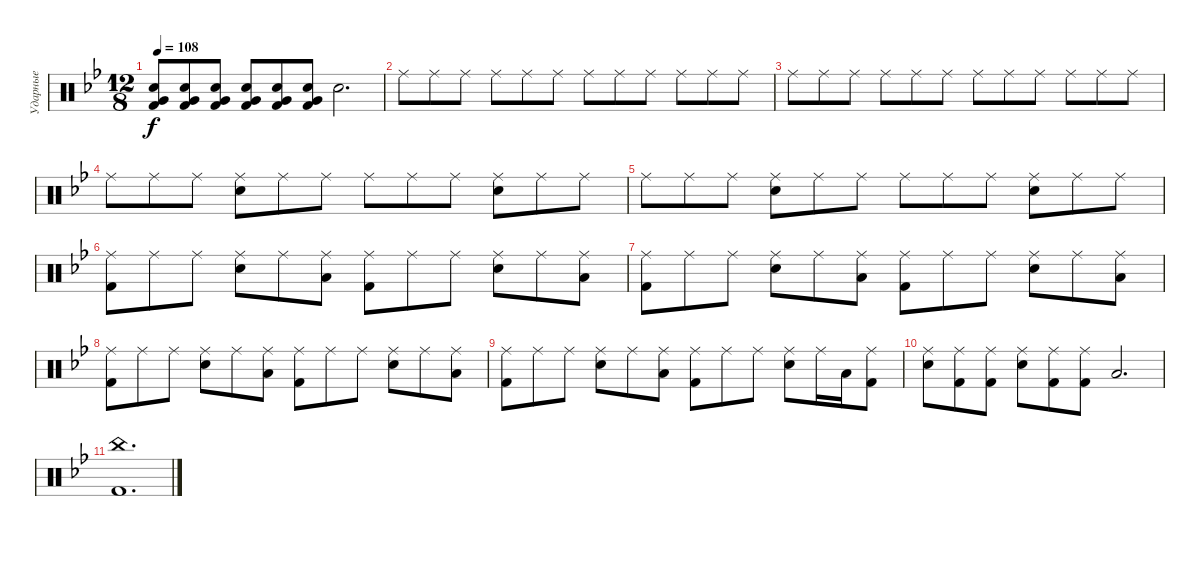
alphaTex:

\track ("Ударные" "Ударные") {instrument percussion}
\staff {score}
\articulation defaults
\ts (12 8)
\tempo 108
\clef neutral
\ks gminor
("Electric Snare (hit)" "Very Low Tom (hit)" "Kick (hit) 2").8{dy f} ("Electric Snare (hit)" "Very Low Tom (hit)" "Kick (hit) 2").8 ("Electric Snare (hit)" "Very Low Tom (hit)" "Kick (hit) 2").8 ("Electric Snare (hit)" "Very Low Tom (hit)" "Kick (hit) 2").8 ("Electric Snare (hit)" "Very Low Tom (hit)" "Kick (hit) 2").8 ("Electric Snare (hit)" "Very Low Tom (hit)" "Kick (hit) 2").8 "Electric Snare (hit)".2{d} |
"Ride (middle)".8 "Ride (middle)".8 "Ride (middle)".8 "Ride (middle)".8 "Ride (middle)".8 "Ride (middle)".8 "Ride (middle)".8 "Ride (middle)".8 "Ride (middle)".8 "Ride (middle)".8 "Ride (middle)".8 "Ride (middle)".8 |
"Ride (middle)".8 "Ride (middle)".8 "Ride (middle)".8 "Ride (middle)".8 "Ride (middle)".8 "Ride (middle)".8 "Ride (middle)".8 "Ride (middle)".8 "Ride (middle)".8 "Ride (middle)".8 "Ride (middle)".8 "Ride (middle)".8 |
"Ride (middle)".8 "Ride (middle)".8 "Ride (middle)".8 ("Ride (middle)" "Electric Snare (hit)").8 "Ride (middle)".8 "Ride (middle)".8 "Ride (middle)".8 "Ride (middle)".8 "Ride (middle)".8 ("Ride (middle)" "Electric Snare (hit)").8 "Ride (middle)".8 "Ride (middle)".8 |
"Ride (middle)".8 "Ride (middle)".8 "Ride (middle)".8 ("Ride (middle)" "Electric Snare (hit)").8 "Ride (middle)".8 "Ride (middle)".8 "Ride (middle)".8 "Ride (middle)".8 "Ride (middle)".8 ("Ride (middle)" "Electric Snare (hit)").8 "Ride (middle)".8 "Ride (middle)".8 |
("Ride (middle)" "Kick (hit) 2").8 "Ride (middle)".8 "Ride (middle)".8 ("Ride (middle)" "Electric Snare (hit)").8 "Ride (middle)".8 ("Ride (middle)" "Low Tom (hit)").8 ("Ride (middle)" "Kick (hit) 2").8 "Ride (middle)".8 "Ride (middle)".8 ("Ride (middle)" "Electric Snare (hit)").8 "Ride (middle)".8 ("Ride (middle)" "Low Tom (hit)").8 |
("Ride (middle)" "Kick (hit) 2").8 "Ride (middle)".8 "Ride (middle)".8 ("Ride (middle)" "Electric Snare (hit)").8 "Ride (middle)".8 ("Ride (middle)" "Low Tom (hit)").8 ("Ride (middle)" "Kick (hit) 2").8 "Ride (middle)".8 "Ride (middle)".8 ("Ride (middle)" "Electric Snare (hit)").8 "Ride (middle)".8 ("Ride (middle)" "Low Tom (hit)").8 |
("Ride (middle)" "Kick (hit) 2").8 "Ride (middle)".8 "Ride (middle)".8 ("Ride (middle)" "Electric Snare (hit)").8 "Ride (middle)".8 ("Ride (middle)" "Low Tom (hit)").8 ("Ride (middle)" "Kick (hit) 2").8 "Ride (middle)".8 "Ride (middle)".8 ("Ride (middle)" "Electric Snare (hit)").8 "Ride (middle)".8 ("Ride (middle)" "Low Tom (hit)").8 |
("Ride (middle)" "Kick (hit) 2").8 "Ride (middle)".8 "Ride (middle)".8 ("Ride (middle)" "Electric Snare (hit)").8 "Ride (middle)".8 ("Ride (middle)" "Low Tom (hit)").8 ("Ride (middle)" "Kick (hit) 2").8 "Ride (middle)".8 "Ride (middle)".8 ("Ride (middle)" "Electric Snare (hit)").8 "Ride (middle)".16 "Low Tom (hit)".16 ("Ride (middle)" "Kick (hit) 2").8 |
("Ride (middle)" "Electric Snare (hit)").8 ("Ride (middle)" "Kick (hit) 2").8 ("Ride (middle)" "Kick (hit) 2").8 ("Ride (middle)" "Electric Snare (hit)").8 ("Ride (middle)" "Kick (hit) 2").8 ("Ride (middle)" "Kick (hit) 2").8 "Low Tom (hit)".2{d} |
("China (hit)" "Kick (hit) 2").1{d}
